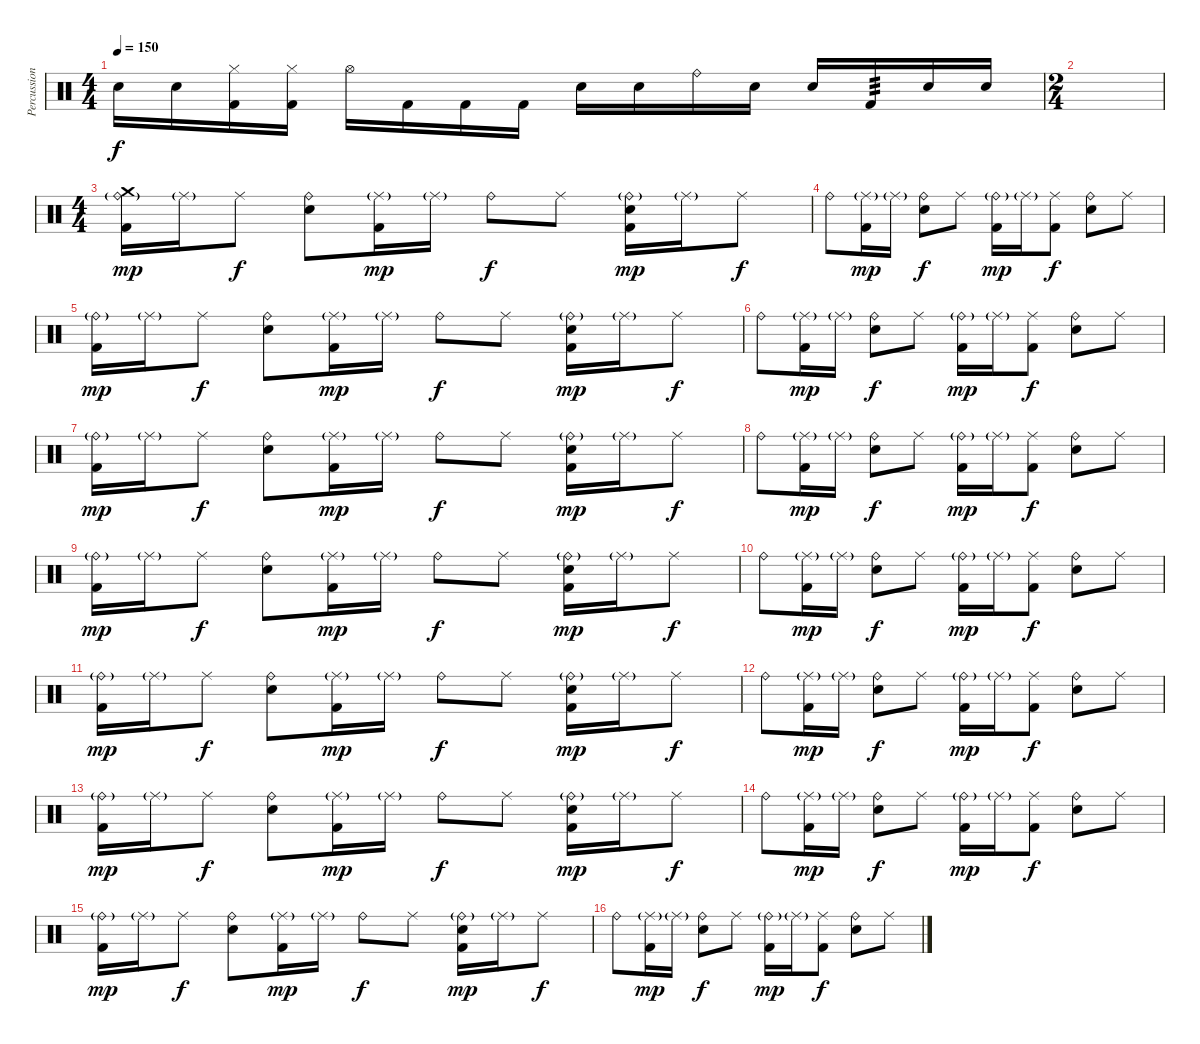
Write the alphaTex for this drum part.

\track ("Percussion" "Percussion") {instrument percussion}
\staff {score}
\articulation defaults
\ts (4 4)
\tempo 150
\clef neutral
\ks c "Electric Snare (hit)".16{dy f} "Electric Snare (hit)".16
("Hi-Hat (closed)" "Kick (hit) 2").16 ("Hi-Hat (closed)" "Kick (hit) 2").16 "Hi-Hat (open)".16 "Kick (hit) 2".16 "Kick (hit) 2".16 "Kick (hit) 2".16 "Electric Snare (hit)".16 "Electric Snare (hit)".16 "Ride (bell)".16 "Electric Snare (hit)".16 "Electric Snare (hit)".16 "Kick (hit) 2".16{tp 3} "Electric Snare (hit)".16 "Electric Snare (hit)".16 |
\ts (2 4)
|
\ts (4 4)
("Ride (bell)"{g} "Crash medium (hit)" "Kick (hit) 2").16{dy mp} "Ride (middle)"{g}.16 "Ride (middle)".8{dy f} ("Ride (bell)" "Electric Snare (hit)").8 ("Ride (middle)"{g} "Kick (hit) 2").16{dy mp} "Ride (middle)"{g}.16 "Ride (bell)".8{dy f} "Ride (middle)".8 ("Ride (bell)"{g} "Electric Snare (hit)" "Kick (hit) 2").16{dy mp} "Ride (middle)"{g}.16 "Ride (middle)".8{dy f} |
"Ride (bell)".8 ("Ride (middle)"{g} "Kick (hit) 2").16{dy mp} "Ride (middle)"{g}.16 ("Ride (bell)" "Electric Snare (hit)").8{dy f} "Ride (middle)".8 ("Ride (bell)"{g} "Kick (hit) 2").16{dy mp} "Ride (middle)"{g}.16 ("Ride (middle)" "Kick (hit) 2").8{dy f} ("Ride (bell)" "Electric Snare (hit)").8 "Ride (middle)".8 |
("Ride (bell)"{g} "Kick (hit) 2").16{dy mp} "Ride (middle)"{g}.16 "Ride (middle)".8{dy f} ("Ride (bell)" "Electric Snare (hit)").8 ("Ride (middle)"{g} "Kick (hit) 2").16{dy mp} "Ride (middle)"{g}.16 "Ride (bell)".8{dy f} "Ride (middle)".8 ("Ride (bell)"{g} "Electric Snare (hit)" "Kick (hit) 2").16{dy mp} "Ride (middle)"{g}.16 "Ride (middle)".8{dy f} |
"Ride (bell)".8 ("Ride (middle)"{g} "Kick (hit) 2").16{dy mp} "Ride (middle)"{g}.16 ("Ride (bell)" "Electric Snare (hit)").8{dy f} "Ride (middle)".8 ("Ride (bell)"{g} "Kick (hit) 2").16{dy mp} "Ride (middle)"{g}.16 ("Ride (middle)" "Kick (hit) 2").8{dy f} ("Ride (bell)" "Electric Snare (hit)").8 "Ride (middle)".8 |
("Ride (bell)"{g} "Kick (hit) 2").16{dy mp} "Ride (middle)"{g}.16 "Ride (middle)".8{dy f} ("Ride (bell)" "Electric Snare (hit)").8 ("Ride (middle)"{g} "Kick (hit) 2").16{dy mp} "Ride (middle)"{g}.16 "Ride (bell)".8{dy f} "Ride (middle)".8 ("Ride (bell)"{g} "Electric Snare (hit)" "Kick (hit) 2").16{dy mp} "Ride (middle)"{g}.16 "Ride (middle)".8{dy f} |
"Ride (bell)".8 ("Ride (middle)"{g} "Kick (hit) 2").16{dy mp} "Ride (middle)"{g}.16 ("Ride (bell)" "Electric Snare (hit)").8{dy f} "Ride (middle)".8 ("Ride (bell)"{g} "Kick (hit) 2").16{dy mp} "Ride (middle)"{g}.16 ("Ride (middle)" "Kick (hit) 2").8{dy f} ("Ride (bell)" "Electric Snare (hit)").8 "Ride (middle)".8 |
("Ride (bell)"{g} "Kick (hit) 2").16{dy mp} "Ride (middle)"{g}.16 "Ride (middle)".8{dy f} ("Ride (bell)" "Electric Snare (hit)").8 ("Ride (middle)"{g} "Kick (hit) 2").16{dy mp} "Ride (middle)"{g}.16 "Ride (bell)".8{dy f} "Ride (middle)".8 ("Ride (bell)"{g} "Electric Snare (hit)" "Kick (hit) 2").16{dy mp} "Ride (middle)"{g}.16 "Ride (middle)".8{dy f} |
"Ride (bell)".8 ("Ride (middle)"{g} "Kick (hit) 2").16{dy mp} "Ride (middle)"{g}.16 ("Ride (bell)" "Electric Snare (hit)").8{dy f} "Ride (middle)".8 ("Ride (bell)"{g} "Kick (hit) 2").16{dy mp} "Ride (middle)"{g}.16 ("Ride (middle)" "Kick (hit) 2").8{dy f} ("Ride (bell)" "Electric Snare (hit)").8 "Ride (middle)".8 |
("Ride (bell)"{g} "Kick (hit) 2").16{dy mp} "Ride (middle)"{g}.16 "Ride (middle)".8{dy f} ("Ride (bell)" "Electric Snare (hit)").8 ("Ride (middle)"{g} "Kick (hit) 2").16{dy mp} "Ride (middle)"{g}.16 "Ride (bell)".8{dy f} "Ride (middle)".8 ("Ride (bell)"{g} "Electric Snare (hit)" "Kick (hit) 2").16{dy mp} "Ride (middle)"{g}.16 "Ride (middle)".8{dy f} |
"Ride (bell)".8 ("Ride (middle)"{g} "Kick (hit) 2").16{dy mp} "Ride (middle)"{g}.16 ("Ride (bell)" "Electric Snare (hit)").8{dy f} "Ride (middle)".8 ("Ride (bell)"{g} "Kick (hit) 2").16{dy mp} "Ride (middle)"{g}.16 ("Ride (middle)" "Kick (hit) 2").8{dy f} ("Ride (bell)" "Electric Snare (hit)").8 "Ride (middle)".8 |
("Ride (bell)"{g} "Kick (hit) 2").16{dy mp} "Ride (middle)"{g}.16 "Ride (middle)".8{dy f} ("Ride (bell)" "Electric Snare (hit)").8 ("Ride (middle)"{g} "Kick (hit) 2").16{dy mp} "Ride (middle)"{g}.16 "Ride (bell)".8{dy f} "Ride (middle)".8 ("Ride (bell)"{g} "Electric Snare (hit)" "Kick (hit) 2").16{dy mp} "Ride (middle)"{g}.16 "Ride (middle)".8{dy f} |
"Ride (bell)".8 ("Ride (middle)"{g} "Kick (hit) 2").16{dy mp} "Ride (middle)"{g}.16 ("Ride (bell)" "Electric Snare (hit)").8{dy f} "Ride (middle)".8 ("Ride (bell)"{g} "Kick (hit) 2").16{dy mp} "Ride (middle)"{g}.16 ("Ride (middle)" "Kick (hit) 2").8{dy f} ("Ride (bell)" "Electric Snare (hit)").8 "Ride (middle)".8 |
("Ride (bell)"{g} "Kick (hit) 2").16{dy mp} "Ride (middle)"{g}.16 "Ride (middle)".8{dy f} ("Ride (bell)" "Electric Snare (hit)").8 ("Ride (middle)"{g} "Kick (hit) 2").16{dy mp} "Ride (middle)"{g}.16 "Ride (bell)".8{dy f} "Ride (middle)".8 ("Ride (bell)"{g} "Electric Snare (hit)" "Kick (hit) 2").16{dy mp} "Ride (middle)"{g}.16 "Ride (middle)".8{dy f} |
"Ride (bell)".8 ("Ride (middle)"{g} "Kick (hit) 2").16{dy mp} "Ride (middle)"{g}.16 ("Ride (bell)" "Electric Snare (hit)").8{dy f} "Ride (middle)".8 ("Ride (bell)"{g} "Kick (hit) 2").16{dy mp} "Ride (middle)"{g}.16 ("Ride (middle)" "Kick (hit) 2").8{dy f} ("Ride (bell)" "Electric Snare (hit)").8 "Ride (middle)".8
